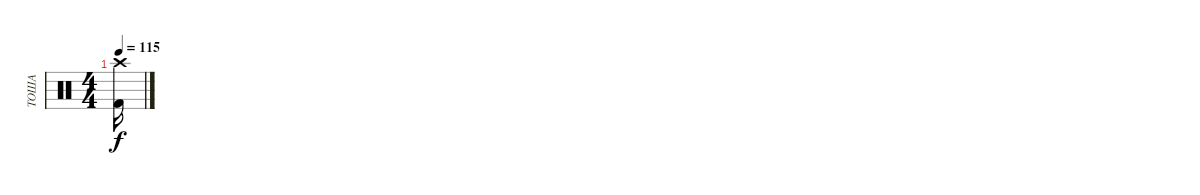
\track ("ТОША" "ТОША") {instrument percussion}
\staff {score}
\articulation defaults
\ts (4 4)
\tempo 115
\clef neutral
\ks c
("Crash high (hit)" "Kick (hit) 2").16{dy f}
